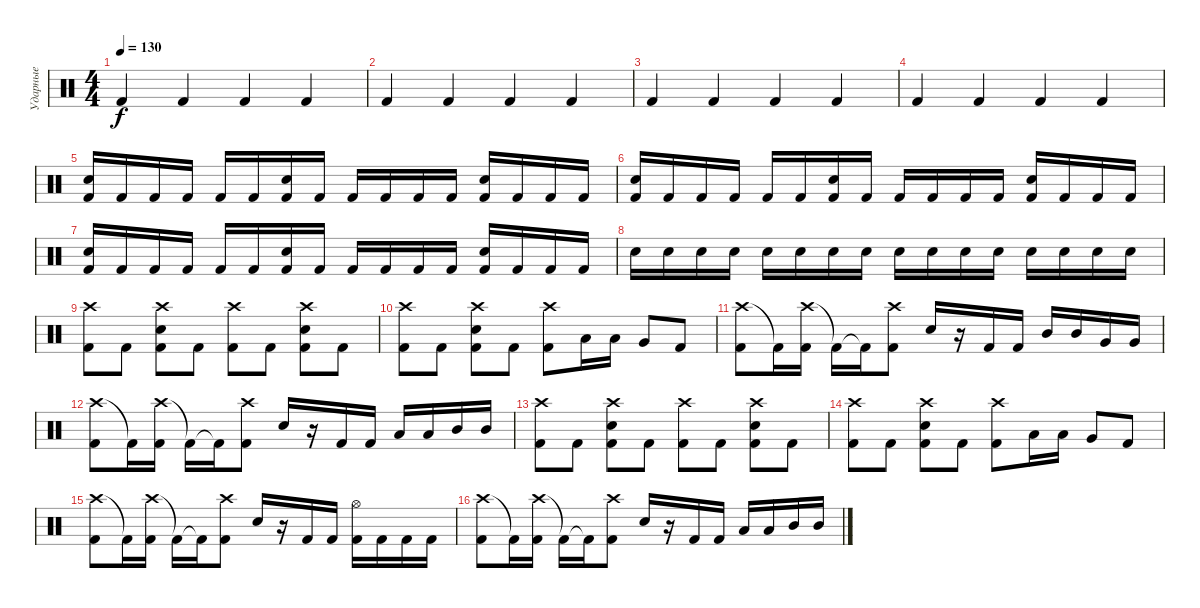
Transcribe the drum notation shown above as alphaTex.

\track ("Ударные" "Ударные") {instrument percussion}
\staff {score}
\articulation defaults
\ts (4 4)
\tempo 130
\clef neutral
\ks c "Kick (hit) 2".4{dy f} "Kick (hit) 2".4 "Kick (hit) 2".4 "Kick (hit) 2".4
|
"Kick (hit) 2".4 "Kick (hit) 2".4 "Kick (hit) 2".4 "Kick (hit) 2".4 |
"Kick (hit) 2".4 "Kick (hit) 2".4 "Kick (hit) 2".4 "Kick (hit) 2".4 |
"Kick (hit) 2".4 "Kick (hit) 2".4 "Kick (hit) 2".4 "Kick (hit) 2".4 |
("Snare (hit) 2" "Kick (hit) 2").16 "Kick (hit) 2".16 "Kick (hit) 2".16 "Kick (hit) 2".16 "Kick (hit) 2".16 "Kick (hit) 2".16 ("Snare (hit) 2" "Kick (hit) 2").16 "Kick (hit) 2".16 "Kick (hit) 2".16 "Kick (hit) 2".16 "Kick (hit) 2".16 "Kick (hit) 2".16 ("Snare (hit) 2" "Kick (hit) 2").16 "Kick (hit) 2".16 "Kick (hit) 2".16 "Kick (hit) 2".16 |
("Snare (hit) 2" "Kick (hit) 2").16 "Kick (hit) 2".16 "Kick (hit) 2".16 "Kick (hit) 2".16 "Kick (hit) 2".16 "Kick (hit) 2".16 ("Snare (hit) 2" "Kick (hit) 2").16 "Kick (hit) 2".16 "Kick (hit) 2".16 "Kick (hit) 2".16 "Kick (hit) 2".16 "Kick (hit) 2".16 ("Snare (hit) 2" "Kick (hit) 2").16 "Kick (hit) 2".16 "Kick (hit) 2".16 "Kick (hit) 2".16 |
("Snare (hit) 2" "Kick (hit) 2").16 "Kick (hit) 2".16 "Kick (hit) 2".16 "Kick (hit) 2".16 "Kick (hit) 2".16 "Kick (hit) 2".16 ("Snare (hit) 2" "Kick (hit) 2").16 "Kick (hit) 2".16 "Kick (hit) 2".16 "Kick (hit) 2".16 "Kick (hit) 2".16 "Kick (hit) 2".16 ("Snare (hit) 2" "Kick (hit) 2").16 "Kick (hit) 2".16 "Kick (hit) 2".16 "Kick (hit) 2".16 |
"Snare (hit) 2".16 "Snare (hit) 2".16 "Snare (hit) 2".16 "Snare (hit) 2".16 "Snare (hit) 2".16 "Snare (hit) 2".16 "Snare (hit) 2".16 "Snare (hit) 2".16 "Snare (hit) 2".16 "Snare (hit) 2".16 "Snare (hit) 2".16 "Snare (hit) 2".16 "Snare (hit) 2".16 "Snare (hit) 2".16 "Snare (hit) 2".16 "Snare (hit) 2".16 |
("Crash high (hit)" "Kick (hit) 2").8 "Kick (hit) 2".8 ("Crash high (hit)" "Snare (hit) 2" "Kick (hit) 2").8 "Kick (hit) 2".8 ("Crash high (hit)" "Kick (hit) 2").8 "Kick (hit) 2".8 ("Crash high (hit)" "Snare (hit) 2" "Kick (hit) 2").8 "Kick (hit) 2".8 |
("Crash high (hit)" "Kick (hit) 2").8 "Kick (hit) 2".8 ("Crash high (hit)" "Snare (hit) 2" "Kick (hit) 2").8 "Kick (hit) 2".8 ("Crash high (hit)" "Kick (hit) 2").8 "Low Tom (hit)".16 "Low Tom (hit)".16 "Very Low Tom (hit)".8 "Kick (hit) 2".8 |
("Crash high (hit)" "Kick (hit) 2").8 "Kick (hit) 2"{t}.16 ("Crash high (hit)" "Kick (hit) 2").16 "Kick (hit) 2"{t}.16 "Kick (hit) 2"{t}.16 ("Crash high (hit)" "Kick (hit) 2").8 "Snare (hit) 2".16 r.16 "Kick (hit) 2".16 "Kick (hit) 2".16 "Mid Tom (hit)".16 "Mid Tom (hit)".16 "Very Low Tom (hit)".16 "Very Low Tom (hit)".16 |
("Crash high (hit)" "Kick (hit) 2").8 "Kick (hit) 2"{t}.16 ("Crash high (hit)" "Kick (hit) 2").16 "Kick (hit) 2"{t}.16 "Kick (hit) 2"{t}.16 ("Crash high (hit)" "Kick (hit) 2").8 "Snare (hit) 2".16 r.16 "Kick (hit) 2".16 "Kick (hit) 2".16 "Low Tom (hit)".16 "Low Tom (hit)".16 "Mid Tom (hit)".16 "Mid Tom (hit)".16 |
("Crash high (hit)" "Kick (hit) 2").8 "Kick (hit) 2".8 ("Crash high (hit)" "Snare (hit) 2" "Kick (hit) 2").8 "Kick (hit) 2".8 ("Crash high (hit)" "Kick (hit) 2").8 "Kick (hit) 2".8 ("Crash high (hit)" "Snare (hit) 2" "Kick (hit) 2").8 "Kick (hit) 2".8 |
("Crash high (hit)" "Kick (hit) 2").8 "Kick (hit) 2".8 ("Crash high (hit)" "Snare (hit) 2" "Kick (hit) 2").8 "Kick (hit) 2".8 ("Crash high (hit)" "Kick (hit) 2").8 "Low Tom (hit)".16 "Low Tom (hit)".16 "Very Low Tom (hit)".8 "Kick (hit) 2".8 |
("Crash high (hit)" "Kick (hit) 2").8 "Kick (hit) 2"{t}.16 ("Crash high (hit)" "Kick (hit) 2").16 "Kick (hit) 2"{t}.16 "Kick (hit) 2"{t}.16 ("Crash high (hit)" "Kick (hit) 2").8 "Snare (hit) 2".16 r.16 "Kick (hit) 2".16 "Kick (hit) 2".16 ("Hi-Hat (open)" "Kick (hit) 2").16 "Kick (hit) 2".16 "Kick (hit) 2".16 "Kick (hit) 2".16 |
("Crash high (hit)" "Kick (hit) 2").8 "Kick (hit) 2"{t}.16 ("Crash high (hit)" "Kick (hit) 2").16 "Kick (hit) 2"{t}.16 "Kick (hit) 2"{t}.16 ("Crash high (hit)" "Kick (hit) 2").8 "Snare (hit) 2".16 r.16 "Kick (hit) 2".16 "Kick (hit) 2".16 "Low Tom (hit)".16 "Low Tom (hit)".16 "Mid Tom (hit)".16 "Mid Tom (hit)".16
